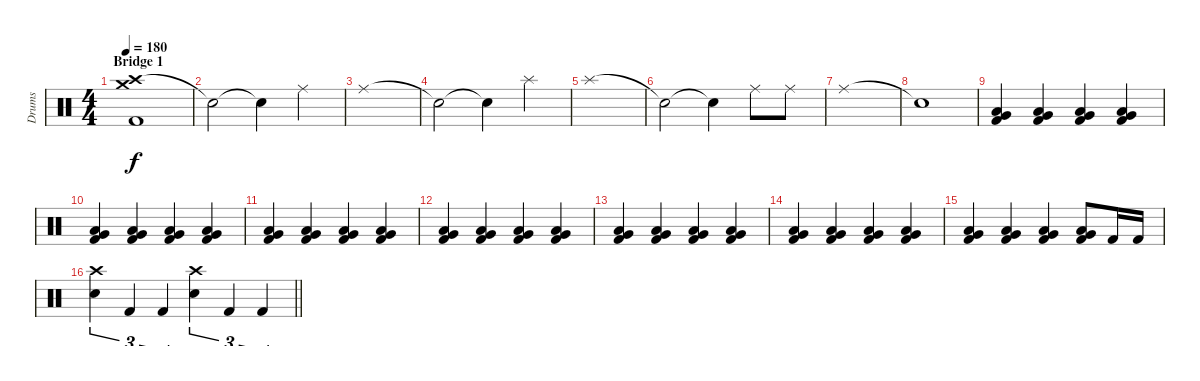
\track ("Drums" "Drums") {instrument percussion}
\staff {score}
\articulation defaults
\ts (4 4)
\section ("" "Bridge 1")
\tempo 180
\clef neutral
\ks c
("Crash high (hit)" "Crash medium (hit)" "Kick (hit) 2").1{dy f} |
"Snare (hit)"{t}.2 "Snare (hit)"{t}.4 "Ride (middle)".4 |
"Ride (middle)".1 |
"Snare (hit)"{t}.2 "Snare (hit)"{t}.4 "Splash (hit)".4 |
"Splash (hit)".1 |
"Snare (hit)"{t}.2 "Snare (hit)"{t}.4 "Ride (middle)".8 "Ride (middle)".8 |
"Ride (middle)".1 |
"Snare (hit)"{t}.1 |
("Low Tom (hit)" "Very Low Tom (hit)" "Kick (hit) 2").4 ("Low Tom (hit)" "Very Low Tom (hit)" "Kick (hit) 2").4 ("Low Tom (hit)" "Very Low Tom (hit)" "Kick (hit) 2").4 ("Low Tom (hit)" "Very Low Tom (hit)" "Kick (hit) 2").4 |
("Low Tom (hit)" "Very Low Tom (hit)" "Kick (hit) 2").4 ("Low Tom (hit)" "Very Low Tom (hit)" "Kick (hit) 2").4 ("Low Tom (hit)" "Very Low Tom (hit)" "Kick (hit) 2").4 ("Low Tom (hit)" "Very Low Tom (hit)" "Kick (hit) 2").4 |
("Low Tom (hit)" "Very Low Tom (hit)" "Kick (hit) 2").4 ("Low Tom (hit)" "Very Low Tom (hit)" "Kick (hit) 2").4 ("Low Tom (hit)" "Very Low Tom (hit)" "Kick (hit) 2").4 ("Low Tom (hit)" "Very Low Tom (hit)" "Kick (hit) 2").4 |
("Low Tom (hit)" "Very Low Tom (hit)" "Kick (hit) 2").4 ("Low Tom (hit)" "Very Low Tom (hit)" "Kick (hit) 2").4 ("Low Tom (hit)" "Very Low Tom (hit)" "Kick (hit) 2").4 ("Low Tom (hit)" "Very Low Tom (hit)" "Kick (hit) 2").4 |
("Low Tom (hit)" "Very Low Tom (hit)" "Kick (hit) 2").4 ("Low Tom (hit)" "Very Low Tom (hit)" "Kick (hit) 2").4 ("Low Tom (hit)" "Very Low Tom (hit)" "Kick (hit) 2").4 ("Low Tom (hit)" "Very Low Tom (hit)" "Kick (hit) 2").4 |
("Low Tom (hit)" "Very Low Tom (hit)" "Kick (hit) 2").4 ("Low Tom (hit)" "Very Low Tom (hit)" "Kick (hit) 2").4 ("Low Tom (hit)" "Very Low Tom (hit)" "Kick (hit) 2").4 ("Low Tom (hit)" "Very Low Tom (hit)" "Kick (hit) 2").4 |
("Low Tom (hit)" "Very Low Tom (hit)" "Kick (hit) 2").4 ("Low Tom (hit)" "Very Low Tom (hit)" "Kick (hit) 2").4 ("Low Tom (hit)" "Very Low Tom (hit)" "Kick (hit) 2").4 ("Low Tom (hit)" "Very Low Tom (hit)" "Kick (hit) 2").8 "Kick (hit) 2".16 "Kick (hit) 2".16 |
\barLineRight lightlight
("Crash high (hit)" "Electric Snare (hit)").4{tu (3 2)} "Kick (hit) 2".4{tu (3 2)} "Kick (hit) 2".4{tu (3 2)} ("Crash high (hit)" "Electric Snare (hit)").4{tu (3 2)} "Kick (hit) 2".4{tu (3 2)} "Kick (hit) 2".4{tu (3 2)}
